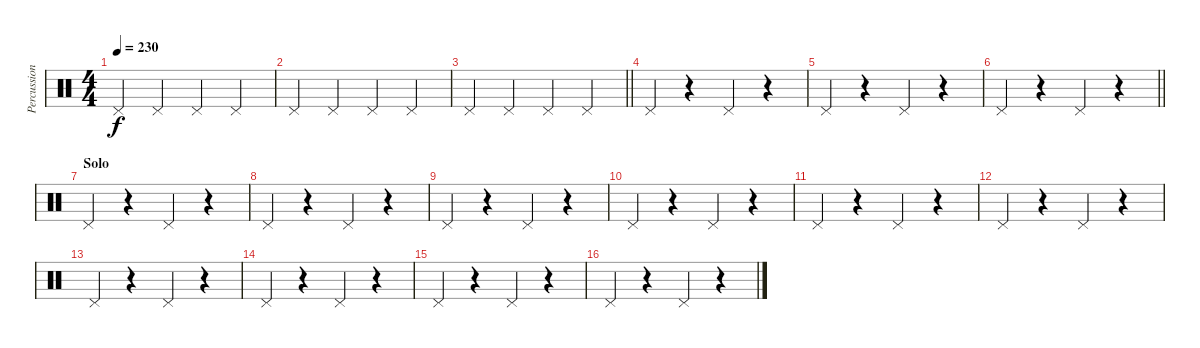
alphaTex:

\track ("Percussion" "Percussion") {instrument percussion}
\staff {score}
\articulation defaults
\ts (4 4)
\tempo 230
\clef neutral
\ks c "Pedal Hi-Hat (hit)".4{dy f} "Pedal Hi-Hat (hit)".4 "Pedal Hi-Hat (hit)".4 "Pedal Hi-Hat (hit)".4
|
"Pedal Hi-Hat (hit)".4 "Pedal Hi-Hat (hit)".4 "Pedal Hi-Hat (hit)".4 "Pedal Hi-Hat (hit)".4 |
\barLineRight lightlight "Pedal Hi-Hat (hit)".4 "Pedal Hi-Hat (hit)".4 "Pedal Hi-Hat (hit)".4 "Pedal Hi-Hat (hit)".4
|
"Pedal Hi-Hat (hit)".4 r.4 "Pedal Hi-Hat (hit)".4 r.4 |
"Pedal Hi-Hat (hit)".4 r.4 "Pedal Hi-Hat (hit)".4 r.4 |
\barLineRight lightlight "Pedal Hi-Hat (hit)".4
r.4 "Pedal Hi-Hat (hit)".4 r.4 |
\section ("" "Solo")
"Pedal Hi-Hat (hit)".4 r.4 "Pedal Hi-Hat (hit)".4 r.4 |
"Pedal Hi-Hat (hit)".4 r.4 "Pedal Hi-Hat (hit)".4 r.4 |
"Pedal Hi-Hat (hit)".4 r.4 "Pedal Hi-Hat (hit)".4 r.4 |
"Pedal Hi-Hat (hit)".4 r.4 "Pedal Hi-Hat (hit)".4 r.4 |
"Pedal Hi-Hat (hit)".4 r.4 "Pedal Hi-Hat (hit)".4 r.4 |
"Pedal Hi-Hat (hit)".4 r.4 "Pedal Hi-Hat (hit)".4 r.4 |
"Pedal Hi-Hat (hit)".4 r.4 "Pedal Hi-Hat (hit)".4 r.4 |
"Pedal Hi-Hat (hit)".4 r.4 "Pedal Hi-Hat (hit)".4 r.4 |
"Pedal Hi-Hat (hit)".4 r.4 "Pedal Hi-Hat (hit)".4 r.4 |
"Pedal Hi-Hat (hit)".4 r.4 "Pedal Hi-Hat (hit)".4 r.4
